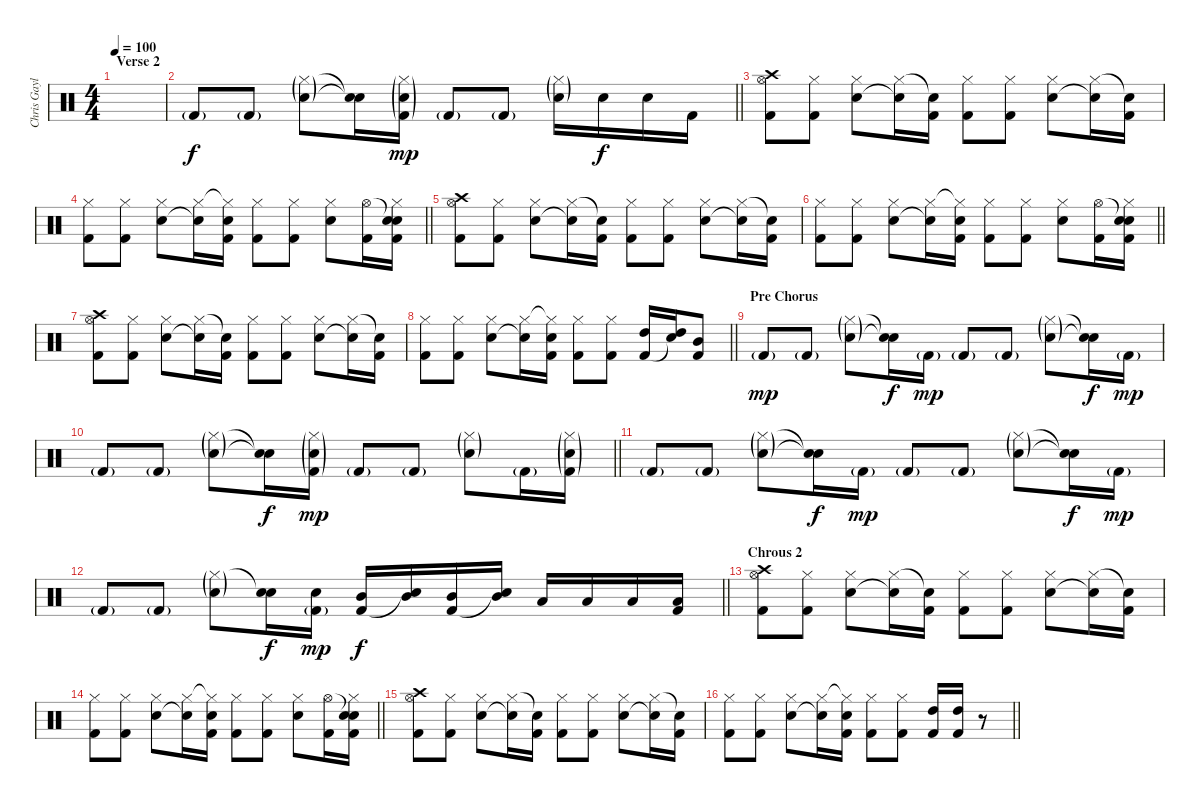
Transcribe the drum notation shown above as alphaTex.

\track ("Chris Gaylor (Drums)" "Chris Gayl") {instrument percussion}
\staff {score}
\articulation defaults
\ts (4 4)
\section ("" "Verse 2")
\tempo 100
\clef neutral
\ks c
|
\barLineRight lightlight "Kick (hit) 2"{g}.8 "Kick (hit) 2"{g}.8
("Hi-Hat (closed)"{g} "Snare (hit) 2"{g}).8 ("Snare (hit)"{t} "Snare (hit)"{t}).16{dy f} ("Hi-Hat (closed)"{g} "Snare (hit) 2"{g} "Kick (hit) 2"{g}).16{dy mp} "Kick (hit) 2"{g}.8 "Kick (hit) 2"{g}.8 ("Hi-Hat (closed)"{g} "Snare (hit) 2"{g}).16 "Snare (hit) 2".16{dy f} "Snare (hit) 2".16 "Kick (hit) 2".16 |
("Hi-Hat (open)" "Crash high (hit)" "Kick (hit) 2").8 ("Hi-Hat (closed)" "Kick (hit) 2").8 ("Hi-Hat (closed)" "Snare (hit) 2").8 ("Hi-Hat (closed)" "Snare (hit)"{t}).16 ("Snare (hit)"{t} "Kick (hit) 2").16 ("Hi-Hat (closed)" "Kick (hit) 2").8 ("Hi-Hat (closed)" "Kick (hit) 2").8 ("Hi-Hat (closed)" "Snare (hit) 2").8 ("Hi-Hat (closed)" "Snare (hit)"{t}).16 ("Snare (hit)"{t} "Kick (hit) 2").16 |
\barLineRight lightlight
("Hi-Hat (closed)" "Kick (hit) 2").8 ("Hi-Hat (closed)" "Kick (hit) 2").8 ("Hi-Hat (closed)" "Snare (hit) 2").8 ("Hi-Hat (closed)" "Snare (hit)"{t}).16 ("Hi-Hat (closed)"{t} "Snare (hit) 2" "Kick (hit) 2").16 ("Hi-Hat (closed)" "Kick (hit) 2").8 ("Hi-Hat (closed)" "Kick (hit) 2").8 ("Hi-Hat (closed)" "Snare (hit) 2").8 ("Hi-Hat (open)" "Kick (hit) 2").16 ("Snare (hit)"{t} "Hi-Hat (closed)" "Snare (hit) 2" "Kick (hit) 2").16 |
("Hi-Hat (open)" "Crash high (hit)" "Kick (hit) 2").8 ("Hi-Hat (closed)" "Kick (hit) 2").8 ("Hi-Hat (closed)" "Snare (hit) 2").8 ("Hi-Hat (closed)" "Snare (hit)"{t}).16 ("Snare (hit)"{t} "Kick (hit) 2").16 ("Hi-Hat (closed)" "Kick (hit) 2").8 ("Hi-Hat (closed)" "Kick (hit) 2").8 ("Hi-Hat (closed)" "Snare (hit) 2").8 ("Hi-Hat (closed)" "Snare (hit)"{t}).16 ("Snare (hit)"{t} "Kick (hit) 2").16 |
\barLineRight lightlight
("Hi-Hat (closed)" "Kick (hit) 2").8 ("Hi-Hat (closed)" "Kick (hit) 2").8 ("Hi-Hat (closed)" "Snare (hit) 2").8 ("Hi-Hat (closed)" "Snare (hit)"{t}).16 ("Hi-Hat (closed)"{t} "Snare (hit) 2" "Kick (hit) 2").16 ("Hi-Hat (closed)" "Kick (hit) 2").8 ("Hi-Hat (closed)" "Kick (hit) 2").8 ("Hi-Hat (closed)" "Snare (hit) 2").8 ("Hi-Hat (open)" "Kick (hit) 2").16 ("Snare (hit)"{t} "Hi-Hat (closed)" "Snare (hit) 2" "Kick (hit) 2").16 |
("Hi-Hat (open)" "Crash high (hit)" "Kick (hit) 2").8 ("Hi-Hat (closed)" "Kick (hit) 2").8 ("Hi-Hat (closed)" "Snare (hit) 2").8 ("Hi-Hat (closed)" "Snare (hit)"{t}).16 ("Snare (hit)"{t} "Kick (hit) 2").16 ("Hi-Hat (closed)" "Kick (hit) 2").8 ("Hi-Hat (closed)" "Kick (hit) 2").8 ("Hi-Hat (closed)" "Snare (hit) 2").8 ("Hi-Hat (closed)" "Snare (hit)"{t}).16 ("Snare (hit)"{t} "Kick (hit) 2").16 |
\barLineRight lightlight
("Hi-Hat (closed)" "Kick (hit) 2").8 ("Hi-Hat (closed)" "Kick (hit) 2").8 ("Hi-Hat (closed)" "Snare (hit) 2").8 ("Hi-Hat (closed)" "Snare (hit)"{t}).16 ("Hi-Hat (closed)"{t} "Snare (hit) 2" "Kick (hit) 2").16 ("Hi-Hat (closed)" "Kick (hit) 2").8 ("Hi-Hat (closed)" "Kick (hit) 2").8 ("High Tom (hit)" "Kick (hit) 2").16 ("High Tom (hit)" "Snare (hit)"{t}).16 ("Mid Tom (hit)" "Kick (hit) 2").8 |
\section ("" "Pre Chorus")
"Kick (hit) 2"{g}.8{dy mp} "Kick (hit) 2"{g}.8 ("Hi-Hat (closed)"{g} "Snare (hit) 2"{g}).8 ("Snare (hit)"{t} "Snare (hit)"{t}).16{dy f} "Kick (hit) 2"{g}.16{dy mp} "Kick (hit) 2"{g}.8 "Kick (hit) 2"{g}.8 ("Hi-Hat (closed)"{g} "Snare (hit) 2"{g}).8 ("Snare (hit)"{t} "Snare (hit)"{t}).16{dy f} "Kick (hit) 2"{g}.16{dy mp} |
\barLineRight lightlight "Kick (hit) 2"{g}.8 "Kick (hit) 2"{g}.8
("Hi-Hat (closed)"{g} "Snare (hit) 2"{g}).8 ("Snare (hit)"{t} "Snare (hit)"{t}).16{dy f} ("Hi-Hat (closed)"{g} "Snare (hit) 2"{g} "Kick (hit) 2"{g}).16{dy mp} "Kick (hit) 2"{g}.8 "Kick (hit) 2"{g}.8 ("Hi-Hat (closed)"{g} "Snare (hit) 2"{g}).8 "Kick (hit) 2"{g}.16 ("Hi-Hat (closed)"{g} "Snare (hit) 2"{g} "Kick (hit) 2"{g}).16 |
"Kick (hit) 2"{g}.8 "Kick (hit) 2"{g}.8 ("Hi-Hat (closed)"{g} "Snare (hit) 2"{g}).8 ("Snare (hit)"{t} "Snare (hit)"{t}).16{dy f} "Kick (hit) 2"{g}.16{dy mp} "Kick (hit) 2"{g}.8 "Kick (hit) 2"{g}.8 ("Hi-Hat (closed)"{g} "Snare (hit) 2"{g}).8 ("Snare (hit)"{t} "Snare (hit)"{t}).16{dy f} "Kick (hit) 2"{g}.16{dy mp} |
\barLineRight lightlight "Kick (hit) 2"{g}.8 "Kick (hit) 2"{g}.8
("Hi-Hat (closed)"{g} "Snare (hit) 2"{g}).8 ("Snare (hit)"{t} "Snare (hit) 2").16{dy f} ("Snare (hit) 2" "Kick (hit) 2"{g}).16{dy mp} ("Mid Tom (hit)" "Kick (hit) 2").16{dy f} ("Mid Tom (hit)" "Snare (hit)"{t}).16 ("Mid Tom (hit)" "Kick (hit) 2").16 ("Mid Tom (hit)" "Snare (hit)"{t}).16 "Low Floor Tom (hit)".16 "Low Floor Tom (hit)".16 "Low Floor Tom (hit)".16 ("Low Floor Tom (hit)" "Kick (hit) 2").16 |
\section ("" "Chrous 2")
("Hi-Hat (open)" "Crash high (hit)" "Kick (hit) 2").8 ("Hi-Hat (closed)" "Kick (hit) 2").8 ("Hi-Hat (closed)" "Snare (hit) 2").8 ("Hi-Hat (closed)" "Snare (hit)"{t}).16 ("Snare (hit)"{t} "Kick (hit) 2").16 ("Hi-Hat (closed)" "Kick (hit) 2").8 ("Hi-Hat (closed)" "Kick (hit) 2").8 ("Hi-Hat (closed)" "Snare (hit) 2").8 ("Hi-Hat (closed)" "Snare (hit)"{t}).16 ("Snare (hit)"{t} "Kick (hit) 2").16 |
\barLineRight lightlight
("Hi-Hat (closed)" "Kick (hit) 2").8 ("Hi-Hat (closed)" "Kick (hit) 2").8 ("Hi-Hat (closed)" "Snare (hit) 2").8 ("Hi-Hat (closed)" "Snare (hit)"{t}).16 ("Hi-Hat (closed)"{t} "Snare (hit) 2" "Kick (hit) 2").16 ("Hi-Hat (closed)" "Kick (hit) 2").8 ("Hi-Hat (closed)" "Kick (hit) 2").8 ("Hi-Hat (closed)" "Snare (hit) 2").8 ("Hi-Hat (open)" "Kick (hit) 2").16 ("Snare (hit)"{t} "Hi-Hat (closed)" "Snare (hit) 2" "Kick (hit) 2").16 |
("Hi-Hat (open)" "Crash high (hit)" "Kick (hit) 2").8 ("Hi-Hat (closed)" "Kick (hit) 2").8 ("Hi-Hat (closed)" "Snare (hit) 2").8 ("Hi-Hat (closed)" "Snare (hit)"{t}).16 ("Snare (hit)"{t} "Kick (hit) 2").16 ("Hi-Hat (closed)" "Kick (hit) 2").8 ("Hi-Hat (closed)" "Kick (hit) 2").8 ("Hi-Hat (closed)" "Snare (hit) 2").8 ("Hi-Hat (closed)" "Snare (hit)"{t}).16 ("Snare (hit)"{t} "Kick (hit) 2").16 |
\barLineRight lightlight
("Hi-Hat (closed)" "Kick (hit) 2").8 ("Hi-Hat (closed)" "Kick (hit) 2").8 ("Hi-Hat (closed)" "Snare (hit) 2").8 ("Hi-Hat (closed)" "Snare (hit)"{t}).16 ("Hi-Hat (closed)"{t} "Snare (hit) 2" "Kick (hit) 2").16 ("Hi-Hat (closed)" "Kick (hit) 2").8 ("Hi-Hat (closed)" "Kick (hit) 2").8 ("High Tom (hit)" "Kick (hit) 2").16 ("High Tom (hit)" "Kick (hit) 2").16 r.8
